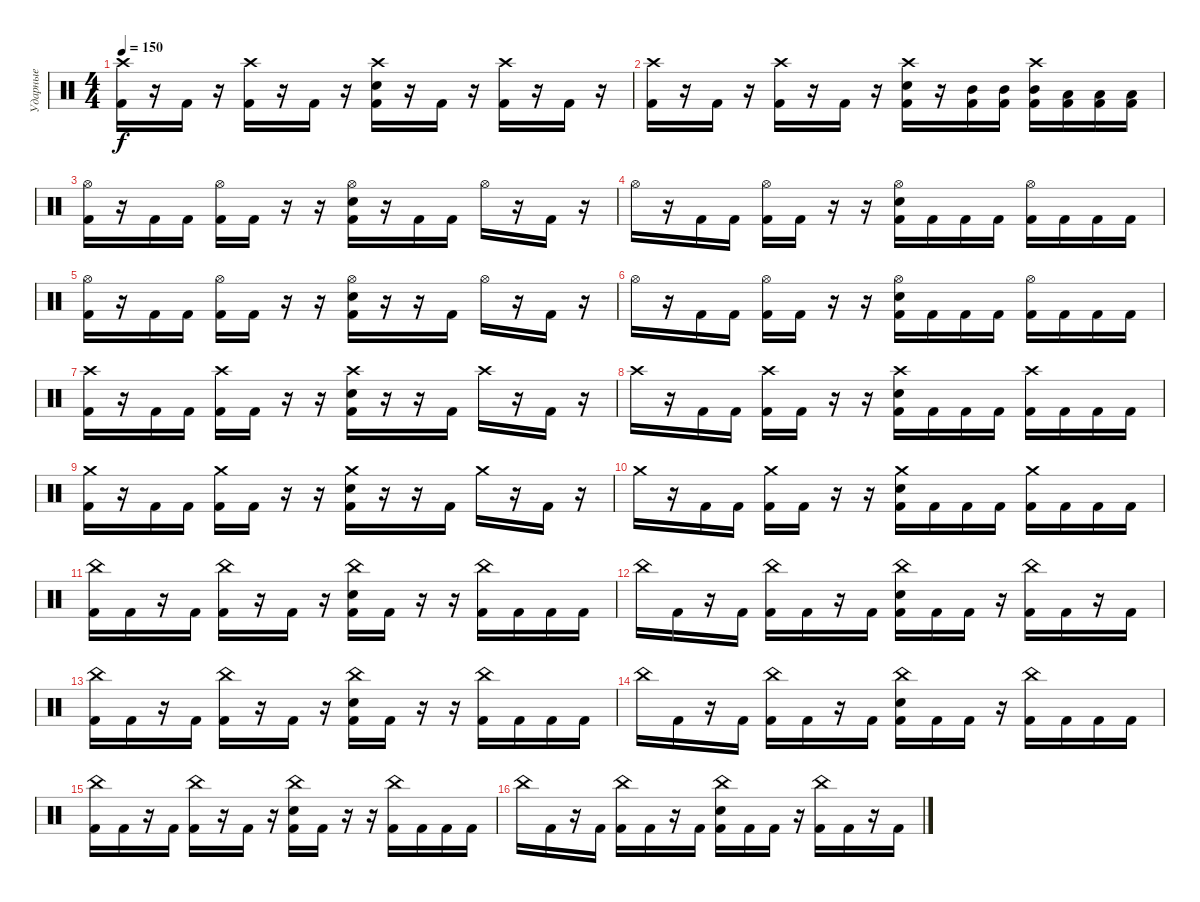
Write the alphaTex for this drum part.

\track ("Ударные" "Ударные") {instrument percussion}
\staff {score}
\articulation defaults
\ts (4 4)
\tempo 150
\clef neutral
\ks c
("Crash high (hit)" "Kick (hit) 2").16{dy f} r.16 "Kick (hit) 2".16 r.16 ("Crash high (hit)" "Kick (hit) 2").16 r.16 "Kick (hit) 2".16 r.16 ("Crash high (hit)" "Electric Snare (hit)" "Kick (hit) 2").16 r.16 "Kick (hit) 2".16 r.16 ("Crash high (hit)" "Kick (hit) 2").16 r.16 "Kick (hit) 2".16 r.16 |
("Crash high (hit)" "Kick (hit) 2").16 r.16 "Kick (hit) 2".16 r.16 ("Crash high (hit)" "Kick (hit) 2").16 r.16 "Kick (hit) 2".16 r.16 ("Crash high (hit)" "Electric Snare (hit)" "Kick (hit) 2").16 r.16 ("Mid Tom (hit)" "Kick (hit) 2").16 ("Mid Tom (hit)" "Kick (hit) 2").16 ("Crash high (hit)" "Mid Tom (hit)" "Kick (hit) 2").16 ("Low Tom (hit)" "Kick (hit) 2").16 ("Low Tom (hit)" "Kick (hit) 2").16 ("Low Tom (hit)" "Kick (hit) 2").16 |
("Hi-Hat (open)" "Kick (hit) 2").16 r.16 "Kick (hit) 2".16 "Kick (hit) 2".16 ("Hi-Hat (open)" "Kick (hit) 2").16 "Kick (hit) 2".16 r.16 r.16 ("Hi-Hat (open)" "Electric Snare (hit)" "Kick (hit) 2").16 r.16 "Kick (hit) 2".16 "Kick (hit) 2".16 "Hi-Hat (open)".16 r.16 "Kick (hit) 2".16 r.16 |
"Hi-Hat (open)".16 r.16 "Kick (hit) 2".16 "Kick (hit) 2".16 ("Hi-Hat (open)" "Kick (hit) 2").16 "Kick (hit) 2".16 r.16 r.16 ("Hi-Hat (open)" "Electric Snare (hit)" "Kick (hit) 2").16 "Kick (hit) 2".16 "Kick (hit) 2".16 "Kick (hit) 2".16 ("Hi-Hat (open)" "Kick (hit) 2").16 "Kick (hit) 2".16 "Kick (hit) 2".16 "Kick (hit) 2".16 |
("Hi-Hat (open)" "Kick (hit) 2").16 r.16 "Kick (hit) 2".16 "Kick (hit) 2".16 ("Hi-Hat (open)" "Kick (hit) 2").16 "Kick (hit) 2".16 r.16 r.16 ("Hi-Hat (open)" "Electric Snare (hit)" "Kick (hit) 2").16 r.16 r.16 "Kick (hit) 2".16 "Hi-Hat (open)".16 r.16 "Kick (hit) 2".16 r.16 |
"Hi-Hat (open)".16 r.16 "Kick (hit) 2".16 "Kick (hit) 2".16 ("Hi-Hat (open)" "Kick (hit) 2").16 "Kick (hit) 2".16 r.16 r.16 ("Hi-Hat (open)" "Electric Snare (hit)" "Kick (hit) 2").16 "Kick (hit) 2".16 "Kick (hit) 2".16 "Kick (hit) 2".16 ("Hi-Hat (open)" "Kick (hit) 2").16 "Kick (hit) 2".16 "Kick (hit) 2".16 "Kick (hit) 2".16 |
("Crash high (hit)" "Kick (hit) 2").16 r.16 "Kick (hit) 2".16 "Kick (hit) 2".16 ("Crash high (hit)" "Kick (hit) 2").16 "Kick (hit) 2".16 r.16 r.16 ("Crash high (hit)" "Electric Snare (hit)" "Kick (hit) 2").16 r.16 r.16 "Kick (hit) 2".16 "Crash high (hit)".16 r.16 "Kick (hit) 2".16 r.16 |
"Crash high (hit)".16 r.16 "Kick (hit) 2".16 "Kick (hit) 2".16 ("Crash high (hit)" "Kick (hit) 2").16 "Kick (hit) 2".16 r.16 r.16 ("Crash high (hit)" "Electric Snare (hit)" "Kick (hit) 2").16 "Kick (hit) 2".16 "Kick (hit) 2".16 "Kick (hit) 2".16 ("Crash high (hit)" "Kick (hit) 2").16 "Kick (hit) 2".16 "Kick (hit) 2".16 "Kick (hit) 2".16 |
("Crash medium (hit)" "Kick (hit) 2").16 r.16 "Kick (hit) 2".16 "Kick (hit) 2".16 ("Crash medium (hit)" "Kick (hit) 2").16 "Kick (hit) 2".16 r.16 r.16 ("Crash medium (hit)" "Electric Snare (hit)" "Kick (hit) 2").16 r.16 r.16 "Kick (hit) 2".16 "Crash medium (hit)".16 r.16 "Kick (hit) 2".16 r.16 |
"Crash medium (hit)".16 r.16 "Kick (hit) 2".16 "Kick (hit) 2".16 ("Crash medium (hit)" "Kick (hit) 2").16 "Kick (hit) 2".16 r.16 r.16 ("Crash medium (hit)" "Electric Snare (hit)" "Kick (hit) 2").16 "Kick (hit) 2".16 "Kick (hit) 2".16 "Kick (hit) 2".16 ("Crash medium (hit)" "Kick (hit) 2").16 "Kick (hit) 2".16 "Kick (hit) 2".16 "Kick (hit) 2".16 |
("China (hit)" "Kick (hit) 2").16 "Kick (hit) 2".16 r.16 "Kick (hit) 2".16 ("China (hit)" "Kick (hit) 2").16 r.16 "Kick (hit) 2".16 r.16 ("China (hit)" "Electric Snare (hit)" "Kick (hit) 2").16 "Kick (hit) 2".16 r.16 r.16 ("China (hit)" "Kick (hit) 2").16 "Kick (hit) 2".16 "Kick (hit) 2".16 "Kick (hit) 2".16 |
"China (hit)".16 "Kick (hit) 2".16 r.16 "Kick (hit) 2".16 ("China (hit)" "Kick (hit) 2").16 "Kick (hit) 2".16 r.16 "Kick (hit) 2".16 ("China (hit)" "Electric Snare (hit)" "Kick (hit) 2").16 "Kick (hit) 2".16 "Kick (hit) 2".16 r.16 ("China (hit)" "Kick (hit) 2").16 "Kick (hit) 2".16 r.16 "Kick (hit) 2".16 |
("China (hit)" "Kick (hit) 2").16 "Kick (hit) 2".16 r.16 "Kick (hit) 2".16 ("China (hit)" "Kick (hit) 2").16 r.16 "Kick (hit) 2".16 r.16 ("China (hit)" "Electric Snare (hit)" "Kick (hit) 2").16 "Kick (hit) 2".16 r.16 r.16 ("China (hit)" "Kick (hit) 2").16 "Kick (hit) 2".16 "Kick (hit) 2".16 "Kick (hit) 2".16 |
"China (hit)".16 "Kick (hit) 2".16 r.16 "Kick (hit) 2".16 ("China (hit)" "Kick (hit) 2").16 "Kick (hit) 2".16 r.16 "Kick (hit) 2".16 ("China (hit)" "Electric Snare (hit)" "Kick (hit) 2").16 "Kick (hit) 2".16 "Kick (hit) 2".16 r.16 ("China (hit)" "Kick (hit) 2").16 "Kick (hit) 2".16 "Kick (hit) 2".16 "Kick (hit) 2".16 |
("China (hit)" "Kick (hit) 2").16 "Kick (hit) 2".16 r.16 "Kick (hit) 2".16 ("China (hit)" "Kick (hit) 2").16 r.16 "Kick (hit) 2".16 r.16 ("China (hit)" "Electric Snare (hit)" "Kick (hit) 2").16 "Kick (hit) 2".16 r.16 r.16 ("China (hit)" "Kick (hit) 2").16 "Kick (hit) 2".16 "Kick (hit) 2".16 "Kick (hit) 2".16 |
"China (hit)".16 "Kick (hit) 2".16 r.16 "Kick (hit) 2".16 ("China (hit)" "Kick (hit) 2").16 "Kick (hit) 2".16 r.16 "Kick (hit) 2".16 ("China (hit)" "Electric Snare (hit)" "Kick (hit) 2").16 "Kick (hit) 2".16 "Kick (hit) 2".16 r.16 ("China (hit)" "Kick (hit) 2").16 "Kick (hit) 2".16 r.16 "Kick (hit) 2".16
